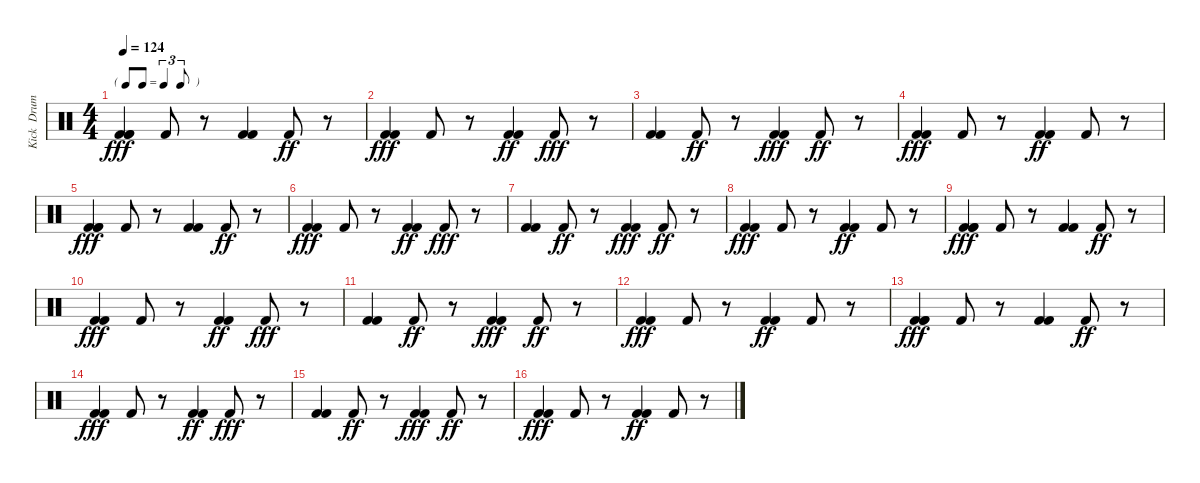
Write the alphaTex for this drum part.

\track ("Kick  Drum" "Kick  Drum") {instrument percussion}
\staff {score}
\articulation defaults
\ts (4 4)
\tf triplet8th
\tempo 124
\clef neutral
\ks c
("Kick (hit) 2" "Kick (hit) 2" "Kick (hit) 2").4{dy fff} "Kick (hit) 2".8 r.8 ("Kick (hit) 2" "Kick (hit) 2").4 "Kick (hit) 2".8{dy ff} r.8 |
("Kick (hit) 2" "Kick (hit) 2").4{dy fff} "Kick (hit) 2".8 r.8 ("Kick (hit) 2" "Kick (hit) 2").4{dy ff} "Kick (hit) 2".8{dy fff} r.8 |
("Kick (hit) 2" "Kick (hit) 2").4 "Kick (hit) 2".8{dy ff} r.8 ("Kick (hit) 2" "Kick (hit) 2").4{dy fff} "Kick (hit) 2".8{dy ff} r.8 |
("Kick (hit) 2" "Kick (hit) 2").4{dy fff} "Kick (hit) 2".8 r.8 ("Kick (hit) 2" "Kick (hit) 2").4{dy ff} "Kick (hit) 2".8 r.8 |
("Kick (hit) 2" "Kick (hit) 2" "Kick (hit) 2").4{dy fff} "Kick (hit) 2".8 r.8 ("Kick (hit) 2" "Kick (hit) 2").4 "Kick (hit) 2".8{dy ff} r.8 |
("Kick (hit) 2" "Kick (hit) 2").4{dy fff} "Kick (hit) 2".8 r.8 ("Kick (hit) 2" "Kick (hit) 2").4{dy ff} "Kick (hit) 2".8{dy fff} r.8 |
("Kick (hit) 2" "Kick (hit) 2").4 "Kick (hit) 2".8{dy ff} r.8 ("Kick (hit) 2" "Kick (hit) 2").4{dy fff} "Kick (hit) 2".8{dy ff} r.8 |
("Kick (hit) 2" "Kick (hit) 2").4{dy fff} "Kick (hit) 2".8 r.8 ("Kick (hit) 2" "Kick (hit) 2").4{dy ff} "Kick (hit) 2".8 r.8 |
("Kick (hit) 2" "Kick (hit) 2" "Kick (hit) 2").4{dy fff} "Kick (hit) 2".8 r.8 ("Kick (hit) 2" "Kick (hit) 2").4 "Kick (hit) 2".8{dy ff} r.8 |
("Kick (hit) 2" "Kick (hit) 2").4{dy fff} "Kick (hit) 2".8 r.8 ("Kick (hit) 2" "Kick (hit) 2").4{dy ff} "Kick (hit) 2".8{dy fff} r.8 |
("Kick (hit) 2" "Kick (hit) 2").4 "Kick (hit) 2".8{dy ff} r.8 ("Kick (hit) 2" "Kick (hit) 2").4{dy fff} "Kick (hit) 2".8{dy ff} r.8 |
("Kick (hit) 2" "Kick (hit) 2").4{dy fff} "Kick (hit) 2".8 r.8 ("Kick (hit) 2" "Kick (hit) 2").4{dy ff} "Kick (hit) 2".8 r.8 |
("Kick (hit) 2" "Kick (hit) 2" "Kick (hit) 2").4{dy fff} "Kick (hit) 2".8 r.8 ("Kick (hit) 2" "Kick (hit) 2").4 "Kick (hit) 2".8{dy ff} r.8 |
("Kick (hit) 2" "Kick (hit) 2").4{dy fff} "Kick (hit) 2".8 r.8 ("Kick (hit) 2" "Kick (hit) 2").4{dy ff} "Kick (hit) 2".8{dy fff} r.8 |
("Kick (hit) 2" "Kick (hit) 2").4 "Kick (hit) 2".8{dy ff} r.8 ("Kick (hit) 2" "Kick (hit) 2").4{dy fff} "Kick (hit) 2".8{dy ff} r.8 |
("Kick (hit) 2" "Kick (hit) 2").4{dy fff} "Kick (hit) 2".8 r.8 ("Kick (hit) 2" "Kick (hit) 2").4{dy ff} "Kick (hit) 2".8 r.8
